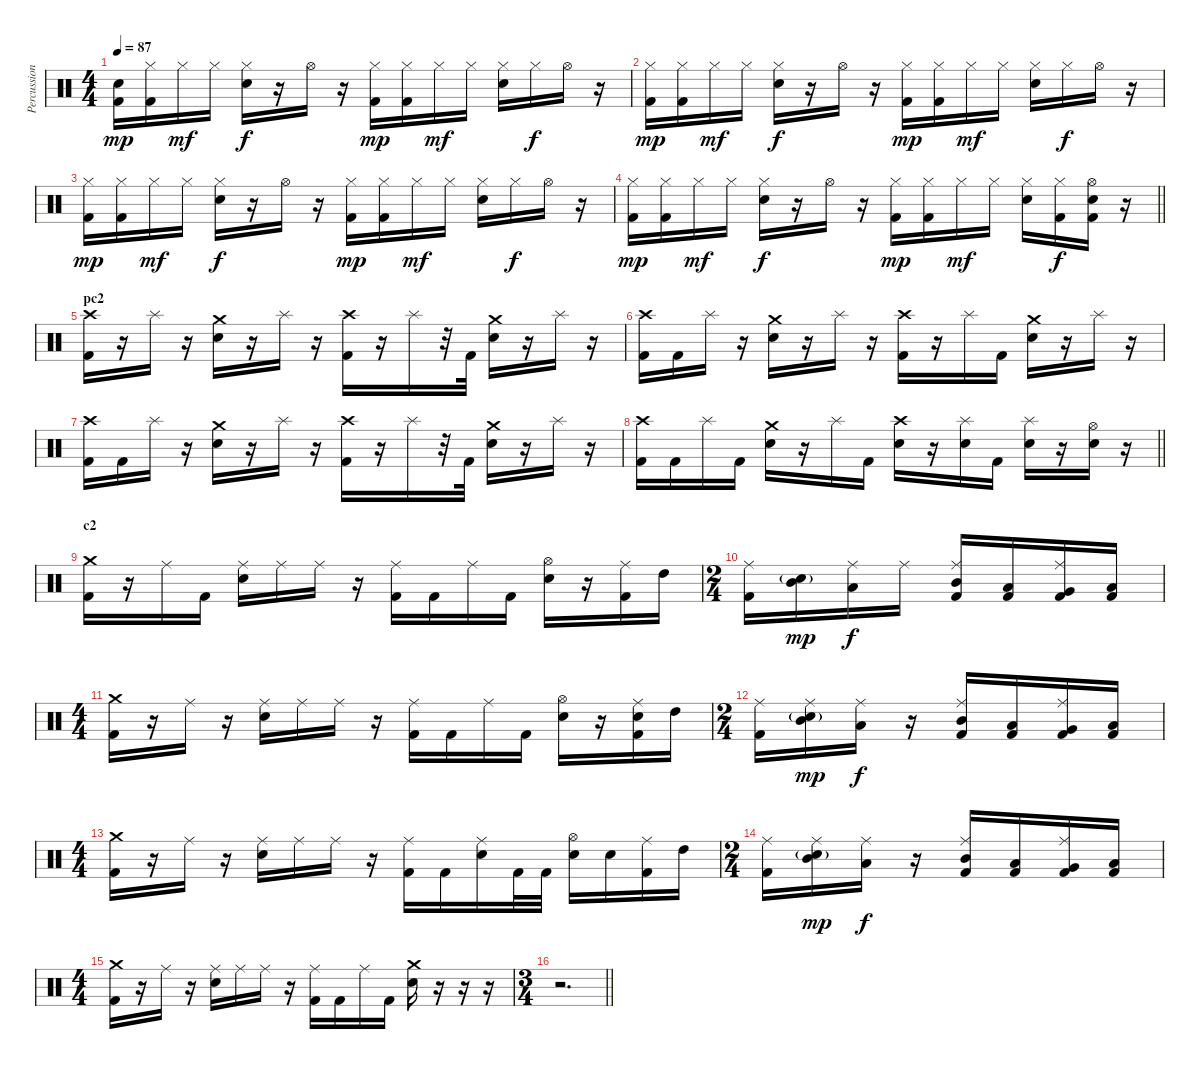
\track ("Percussion" "Percussion") {instrument percussion}
\staff {score}
\articulation defaults
\ts (4 4)
\tempo 87
\clef neutral
\ks c
("Metronome (bell)" "Kick (hit) 2").16{dy mp} ("Hi-Hat (closed)" "Kick (hit) 2").16 "Hi-Hat (closed)".16{dy mf} "Hi-Hat (closed)".16 ("Hi-Hat (closed)" "Electric Snare (hit)").16{dy f} r.16 "Hi-Hat (open)".16 r.16 ("Hi-Hat (closed)" "Kick (hit) 2").16{dy mp} ("Hi-Hat (closed)" "Kick (hit) 2").16 "Hi-Hat (closed)".16{dy mf} "Hi-Hat (closed)".16 ("Hi-Hat (closed)" "Electric Snare (hit)").16 "Hi-Hat (closed)".16{dy f} "Hi-Hat (open)".16 r.16 |
("Hi-Hat (closed)" "Kick (hit) 2").16{dy mp} ("Hi-Hat (closed)" "Kick (hit) 2").16 "Hi-Hat (closed)".16{dy mf} "Hi-Hat (closed)".16 ("Hi-Hat (closed)" "Electric Snare (hit)").16{dy f} r.16 "Hi-Hat (open)".16 r.16 ("Hi-Hat (closed)" "Kick (hit) 2").16{dy mp} ("Hi-Hat (closed)" "Kick (hit) 2").16 "Hi-Hat (closed)".16{dy mf} "Hi-Hat (closed)".16 ("Hi-Hat (closed)" "Electric Snare (hit)").16 "Hi-Hat (closed)".16{dy f} "Hi-Hat (open)".16 r.16 |
("Hi-Hat (closed)" "Kick (hit) 2").16{dy mp} ("Hi-Hat (closed)" "Kick (hit) 2").16 "Hi-Hat (closed)".16{dy mf} "Hi-Hat (closed)".16 ("Hi-Hat (closed)" "Electric Snare (hit)").16{dy f} r.16 "Hi-Hat (open)".16 r.16 ("Hi-Hat (closed)" "Kick (hit) 2").16{dy mp} ("Hi-Hat (closed)" "Kick (hit) 2").16 "Hi-Hat (closed)".16{dy mf} "Hi-Hat (closed)".16 ("Hi-Hat (closed)" "Electric Snare (hit)").16 "Hi-Hat (closed)".16{dy f} "Hi-Hat (open)".16 r.16 |
\barLineRight lightlight
("Hi-Hat (closed)" "Kick (hit) 2").16{dy mp} ("Hi-Hat (closed)" "Kick (hit) 2").16 "Hi-Hat (closed)".16{dy mf} "Hi-Hat (closed)".16 ("Hi-Hat (closed)" "Electric Snare (hit)").16{dy f} r.16 "Hi-Hat (open)".16 r.16 ("Hi-Hat (closed)" "Kick (hit) 2").16{dy mp} ("Hi-Hat (closed)" "Kick (hit) 2").16 "Hi-Hat (closed)".16{dy mf} "Hi-Hat (closed)".16 ("Hi-Hat (closed)" "Electric Snare (hit)").16 ("Hi-Hat (closed)" "Kick (hit) 2").16{dy f} ("Hi-Hat (open)" "Electric Snare (hit)" "Kick (hit) 2").16 r.16 |
\section ("" "pc2")
("Crash high (hit)" "Kick (hit) 2").16 r.16 "Splash (hit)".16 r.16 ("Crash medium (hit)" "Electric Snare (hit)").16 r.16 "Splash (hit)".16 r.16 ("Crash high (hit)" "Kick (hit) 2").16 r.16 "Splash (hit)".16 r.32 "Kick (hit) 2".32 ("Crash medium (hit)" "Electric Snare (hit)").16 r.16 "Splash (hit)".16 r.16 |
("Crash high (hit)" "Kick (hit) 2").16 "Kick (hit) 2".16 "Splash (hit)".16 r.16 ("Crash medium (hit)" "Electric Snare (hit)").16 r.16 "Splash (hit)".16 r.16 ("Crash high (hit)" "Kick (hit) 2").16 r.16 "Splash (hit)".16 "Kick (hit) 2".16 ("Crash medium (hit)" "Electric Snare (hit)").16 r.16 "Splash (hit)".16 r.16 |
("Crash high (hit)" "Kick (hit) 2").16 "Kick (hit) 2".16 "Splash (hit)".16 r.16 ("Crash medium (hit)" "Electric Snare (hit)").16 r.16 "Splash (hit)".16 r.16 ("Crash high (hit)" "Kick (hit) 2").16 r.16 "Splash (hit)".16 r.32 "Kick (hit) 2".32 ("Crash medium (hit)" "Electric Snare (hit)").16 r.16 "Splash (hit)".16 r.16 |
\barLineRight lightlight
("Crash high (hit)" "Kick (hit) 2").16 "Kick (hit) 2".16 "Splash (hit)".16 "Kick (hit) 2".16 ("Crash medium (hit)" "Electric Snare (hit)").16 r.16 "Splash (hit)".16 "Kick (hit) 2".16 ("Crash high (hit)" "Electric Snare (hit)").16 r.16 ("Splash (hit)" "Electric Snare (hit)").16 "Kick (hit) 2".16 ("Splash (hit)" "Electric Snare (hit)").16 r.16 ("Hi-Hat (open)" "Electric Snare (hit)").16 r.16 |
\section ("" "c2")
("Crash medium (hit)" "Kick (hit) 2").16 r.16 "Ride (middle)".16 "Kick (hit) 2".16 ("Ride (middle)" "Electric Snare (hit)").16 "Ride (middle)".16 "Ride (middle)".16 r.16 ("Ride (middle)" "Kick (hit) 2").16 "Kick (hit) 2".16 "Ride (middle)".16 "Kick (hit) 2".16 ("Hi-Hat (open)" "Electric Snare (hit)").16 r.16 ("Ride (middle)" "Kick (hit) 2").16 "High Tom (hit)".16 |
\ts (2 4)
("Ride (middle)" "Kick (hit) 2").16 ("Mid Tom (hit)" "Electric Snare (hit)"{g}).16{dy mp} ("Ride (middle)" "Low Tom (hit)").16{dy f} "Ride (middle)".16 ("Ride (middle)" "Mid Tom (hit)" "Kick (hit) 2").16 ("Low Tom (hit)" "Kick (hit) 2").16 ("Ride (middle)" "Very Low Tom (hit)" "Kick (hit) 2").16 ("Low Tom (hit)" "Kick (hit) 2").16 |
\ts (4 4)
("Crash medium (hit)" "Kick (hit) 2").16 r.16 "Ride (middle)".16 r.16 ("Ride (middle)" "Electric Snare (hit)").16 "Ride (middle)".16 "Ride (middle)".16 r.16 ("Ride (middle)" "Kick (hit) 2").16 "Kick (hit) 2".16 "Ride (middle)".16 "Kick (hit) 2".16 ("Hi-Hat (open)" "Electric Snare (hit)").16 r.16 ("Ride (middle)" "Electric Snare (hit)" "Kick (hit) 2").16 "High Tom (hit)".16 |
\ts (2 4)
("Ride (middle)" "Kick (hit) 2").16 ("Ride (middle)" "Mid Tom (hit)" "Electric Snare (hit)"{g}).16{dy mp} ("Ride (middle)" "Low Tom (hit)").16{dy f} r.16 ("Ride (middle)" "Mid Tom (hit)" "Kick (hit) 2").16 ("Low Tom (hit)" "Kick (hit) 2").16 ("Ride (middle)" "Very Low Tom (hit)" "Kick (hit) 2").16 ("Low Tom (hit)" "Kick (hit) 2").16 |
\ts (4 4)
("Crash medium (hit)" "Kick (hit) 2").16 r.16 "Ride (middle)".16 r.16 ("Ride (middle)" "Electric Snare (hit)").16 "Ride (middle)".16 "Ride (middle)".16 r.16 ("Ride (middle)" "Kick (hit) 2").16 "Kick (hit) 2".16 ("Ride (middle)" "Electric Snare (hit)").16 "Kick (hit) 2".32 "Kick (hit) 2".32 ("Hi-Hat (open)" "Electric Snare (hit)").16 "Electric Snare (hit)".16 ("Ride (middle)" "Kick (hit) 2").16 "High Tom (hit)".16 |
\ts (2 4)
("Ride (middle)" "Kick (hit) 2").16 ("Ride (middle)" "Mid Tom (hit)" "Electric Snare (hit)"{g}).16{dy mp} ("Ride (middle)" "Low Tom (hit)").16{dy f} r.16 ("Ride (middle)" "Mid Tom (hit)" "Kick (hit) 2").16 ("Low Tom (hit)" "Kick (hit) 2").16 ("Ride (middle)" "Very Low Tom (hit)" "Kick (hit) 2").16 ("Low Tom (hit)" "Kick (hit) 2").16 |
\ts (4 4)
("Crash medium (hit)" "Kick (hit) 2").16 r.16 "Ride (middle)".16 r.16 ("Ride (middle)" "Electric Snare (hit)").16 "Ride (middle)".16 "Ride (middle)".16 r.16 ("Ride (middle)" "Kick (hit) 2").16 "Kick (hit) 2".16 "Ride (middle)".16 "Kick (hit) 2".16 ("Crash medium (hit)" "Electric Snare (hit)").16 r.16 r.16 r.16 |
\ts (3 4)
\barLineRight lightlight
r.2{d}
